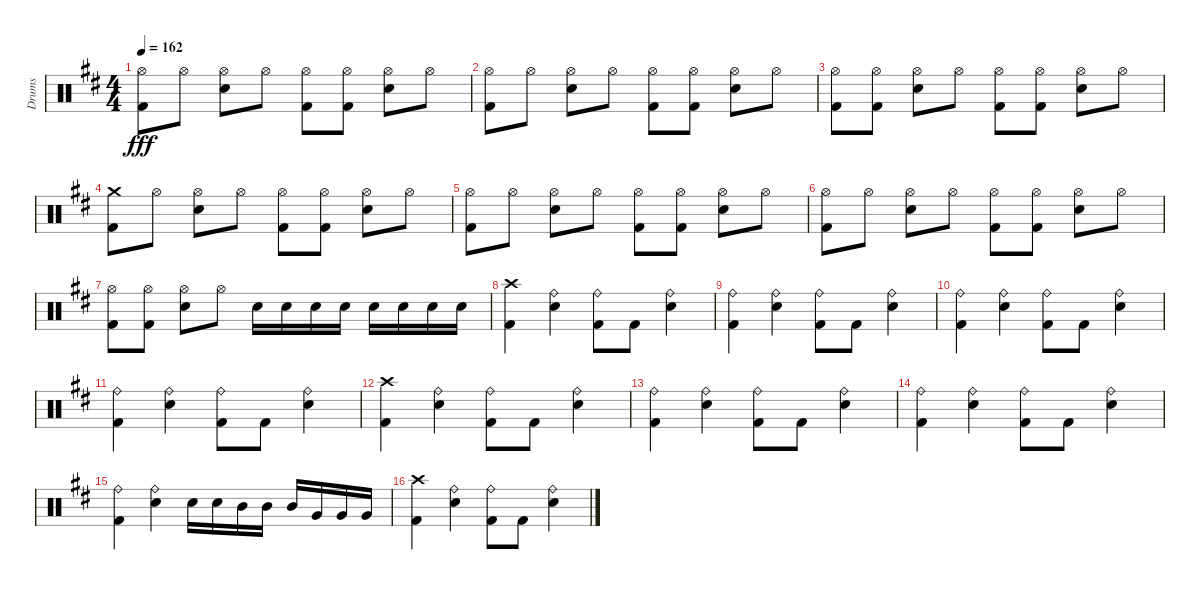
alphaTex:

\track ("Drums" "Drums") {instrument percussion}
\staff {score}
\articulation defaults
\ts (4 4)
\tempo 162
\clef neutral
\ks d
("Hi-Hat (open)" "Kick (hit) 2").8{dy fff} "Hi-Hat (open)".8 ("Hi-Hat (open)" "Snare (hit) 2").8 "Hi-Hat (open)".8 ("Hi-Hat (open)" "Kick (hit) 2").8 ("Hi-Hat (open)" "Kick (hit) 2").8 ("Hi-Hat (open)" "Snare (hit) 2").8 "Hi-Hat (open)".8 |
("Hi-Hat (open)" "Kick (hit) 2").8 "Hi-Hat (open)".8 ("Hi-Hat (open)" "Snare (hit) 2").8 "Hi-Hat (open)".8 ("Hi-Hat (open)" "Kick (hit) 2").8 ("Hi-Hat (open)" "Kick (hit) 2").8 ("Hi-Hat (open)" "Snare (hit) 2").8 "Hi-Hat (open)".8 |
("Hi-Hat (open)" "Kick (hit) 2").8 ("Hi-Hat (open)" "Kick (hit) 2").8 ("Hi-Hat (open)" "Snare (hit) 2").8 "Hi-Hat (open)".8 ("Hi-Hat (open)" "Kick (hit) 2").8 ("Hi-Hat (open)" "Kick (hit) 2").8 ("Hi-Hat (open)" "Snare (hit) 2").8 "Hi-Hat (open)".8 |
("Crash medium (hit)" "Kick (hit) 2").8 "Hi-Hat (open)".8 ("Hi-Hat (open)" "Snare (hit) 2").8 "Hi-Hat (open)".8 ("Hi-Hat (open)" "Kick (hit) 2").8 ("Hi-Hat (open)" "Kick (hit) 2").8 ("Hi-Hat (open)" "Snare (hit) 2").8 "Hi-Hat (open)".8 |
("Hi-Hat (open)" "Kick (hit) 2").8 "Hi-Hat (open)".8 ("Hi-Hat (open)" "Snare (hit) 2").8 "Hi-Hat (open)".8 ("Hi-Hat (open)" "Kick (hit) 2").8 ("Hi-Hat (open)" "Kick (hit) 2").8 ("Hi-Hat (open)" "Snare (hit) 2").8 "Hi-Hat (open)".8 |
("Hi-Hat (open)" "Kick (hit) 2").8 "Hi-Hat (open)".8 ("Hi-Hat (open)" "Snare (hit) 2").8 "Hi-Hat (open)".8 ("Hi-Hat (open)" "Kick (hit) 2").8 ("Hi-Hat (open)" "Kick (hit) 2").8 ("Hi-Hat (open)" "Snare (hit) 2").8 "Hi-Hat (open)".8 |
("Hi-Hat (open)" "Kick (hit) 2").8 ("Hi-Hat (open)" "Kick (hit) 2").8 ("Hi-Hat (open)" "Snare (hit) 2").8 "Hi-Hat (open)".8 "Snare (hit) 2".16 "Snare (hit) 2".16 "Snare (hit) 2".16 "Snare (hit) 2".16 "Snare (hit) 2".16 "Snare (hit) 2".16 "Snare (hit) 2".16 "Snare (hit) 2".16 |
("Crash high (hit)" "Kick (hit) 2").4 ("Ride (bell)" "Snare (hit) 2").4 ("Ride (bell)" "Kick (hit) 2").8 "Kick (hit) 2".8 ("Ride (bell)" "Snare (hit) 2").4 |
("Ride (bell)" "Kick (hit) 2").4 ("Ride (bell)" "Snare (hit) 2").4 ("Ride (bell)" "Kick (hit) 2").8 "Kick (hit) 2".8 ("Ride (bell)" "Snare (hit) 2").4 |
("Ride (bell)" "Kick (hit) 2").4 ("Ride (bell)" "Snare (hit) 2").4 ("Ride (bell)" "Kick (hit) 2").8 "Kick (hit) 2".8 ("Ride (bell)" "Snare (hit) 2").4 |
("Ride (bell)" "Kick (hit) 2").4 ("Ride (bell)" "Snare (hit) 2").4 ("Ride (bell)" "Kick (hit) 2").8 "Kick (hit) 2".8 ("Ride (bell)" "Snare (hit) 2").4 |
("Crash high (hit)" "Kick (hit) 2").4 ("Ride (bell)" "Snare (hit) 2").4 ("Ride (bell)" "Kick (hit) 2").8 "Kick (hit) 2".8 ("Ride (bell)" "Snare (hit) 2").4 |
("Ride (bell)" "Kick (hit) 2").4 ("Ride (bell)" "Snare (hit) 2").4 ("Ride (bell)" "Kick (hit) 2").8 "Kick (hit) 2".8 ("Ride (bell)" "Snare (hit) 2").4 |
("Ride (bell)" "Kick (hit) 2").4 ("Ride (bell)" "Snare (hit) 2").4 ("Ride (bell)" "Kick (hit) 2").8 "Kick (hit) 2".8 ("Ride (bell)" "Snare (hit) 2").4 |
("Ride (bell)" "Kick (hit) 2").4 ("Ride (bell)" "Snare (hit) 2").4 "Snare (hit) 2".16 "Snare (hit) 2".16 "Mid Tom (hit)".16 "Mid Tom (hit)".16 "Mid Tom (hit)".16 "Very Low Tom (hit)".16 "Very Low Tom (hit)".16 "Very Low Tom (hit)".16 |
("Crash high (hit)" "Kick (hit) 2").4 ("Ride (bell)" "Snare (hit) 2").4 ("Ride (bell)" "Kick (hit) 2").8 "Kick (hit) 2".8 ("Ride (bell)" "Snare (hit) 2").4
